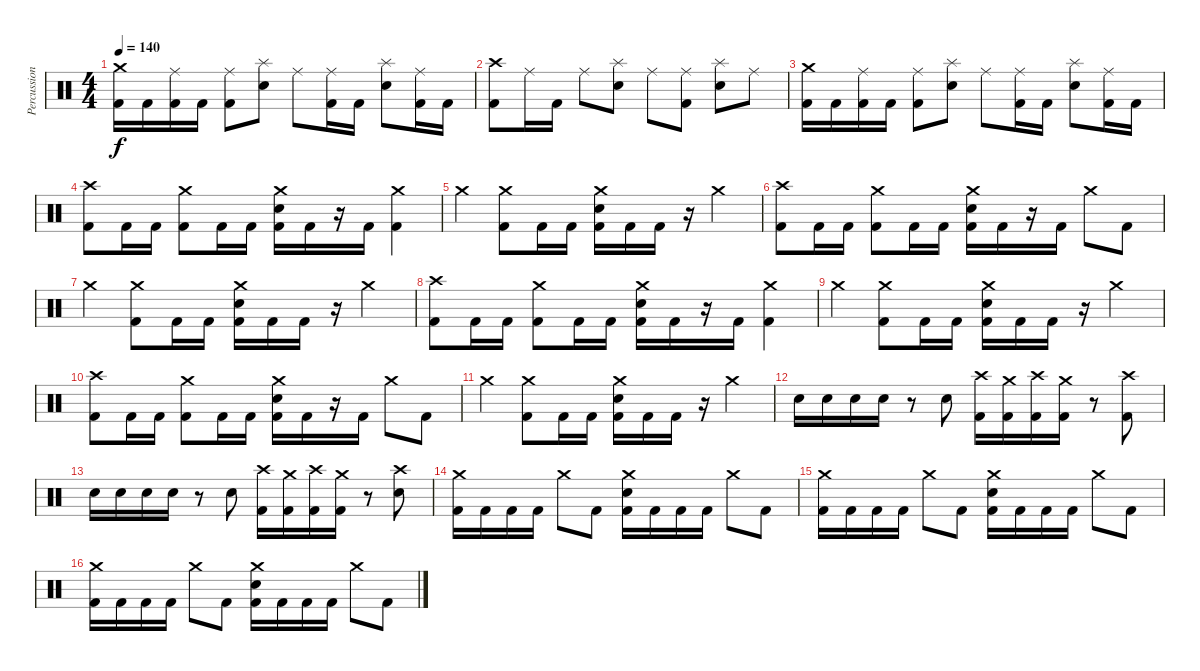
\track ("Percussion" "Percussion") {instrument percussion}
\staff {score}
\articulation defaults
\ts (4 4)
\tempo 140
\clef neutral
\ks c
("Crash medium (hit)" "Kick (hit) 2").16{dy f} "Kick (hit) 2".16 ("Ride (middle)" "Kick (hit) 2").16 "Kick (hit) 2".16 ("Ride (middle)" "Kick (hit) 2").8 ("Splash (hit)" "Electric Snare (hit)").8 "Ride (middle)".8 ("Ride (middle)" "Kick (hit) 2").16 "Kick (hit) 2".16 ("Splash (hit)" "Electric Snare (hit)").8 ("Ride (middle)" "Kick (hit) 2").16 "Kick (hit) 2".16 |
("Crash high (hit)" "Kick (hit) 2").8 "Ride (middle)".16 "Kick (hit) 2".16 "Ride (middle)".8 ("Splash (hit)" "Electric Snare (hit)").8 "Ride (middle)".8 ("Ride (middle)" "Kick (hit) 2").8 ("Splash (hit)" "Electric Snare (hit)").8 "Ride (middle)".8 |
("Crash medium (hit)" "Kick (hit) 2").16 "Kick (hit) 2".16 ("Ride (middle)" "Kick (hit) 2").16 "Kick (hit) 2".16 ("Ride (middle)" "Kick (hit) 2").8 ("Splash (hit)" "Electric Snare (hit)").8 "Ride (middle)".8 ("Ride (middle)" "Kick (hit) 2").16 "Kick (hit) 2".16 ("Splash (hit)" "Electric Snare (hit)").8 ("Ride (middle)" "Kick (hit) 2").16 "Kick (hit) 2".16 |
("Crash high (hit)" "Kick (hit) 2").8 "Kick (hit) 2".16 "Kick (hit) 2".16 ("Crash medium (hit)" "Kick (hit) 2").8 "Kick (hit) 2".16 "Kick (hit) 2".16 ("Crash medium (hit)" "Electric Snare (hit)" "Kick (hit) 2").16 "Kick (hit) 2".16 r.16 "Kick (hit) 2".16 ("Crash medium (hit)" "Kick (hit) 2").4 |
"Crash medium (hit)".4 ("Crash medium (hit)" "Kick (hit) 2").8 "Kick (hit) 2".16 "Kick (hit) 2".16 ("Crash medium (hit)" "Electric Snare (hit)" "Kick (hit) 2").16 "Kick (hit) 2".16 "Kick (hit) 2".16 r.16 "Crash medium (hit)".4 |
("Crash high (hit)" "Kick (hit) 2").8 "Kick (hit) 2".16 "Kick (hit) 2".16 ("Crash medium (hit)" "Kick (hit) 2").8 "Kick (hit) 2".16 "Kick (hit) 2".16 ("Crash medium (hit)" "Electric Snare (hit)" "Kick (hit) 2").16 "Kick (hit) 2".16 r.16 "Kick (hit) 2".16 "Crash medium (hit)".8 "Kick (hit) 2".8 |
"Crash medium (hit)".4 ("Crash medium (hit)" "Kick (hit) 2").8 "Kick (hit) 2".16 "Kick (hit) 2".16 ("Crash medium (hit)" "Electric Snare (hit)" "Kick (hit) 2").16 "Kick (hit) 2".16 "Kick (hit) 2".16 r.16 "Crash medium (hit)".4 |
("Crash high (hit)" "Kick (hit) 2").8 "Kick (hit) 2".16 "Kick (hit) 2".16 ("Crash medium (hit)" "Kick (hit) 2").8 "Kick (hit) 2".16 "Kick (hit) 2".16 ("Crash medium (hit)" "Electric Snare (hit)" "Kick (hit) 2").16 "Kick (hit) 2".16 r.16 "Kick (hit) 2".16 ("Crash medium (hit)" "Kick (hit) 2").4 |
"Crash medium (hit)".4 ("Crash medium (hit)" "Kick (hit) 2").8 "Kick (hit) 2".16 "Kick (hit) 2".16 ("Crash medium (hit)" "Electric Snare (hit)" "Kick (hit) 2").16 "Kick (hit) 2".16 "Kick (hit) 2".16 r.16 "Crash medium (hit)".4 |
("Crash high (hit)" "Kick (hit) 2").8 "Kick (hit) 2".16 "Kick (hit) 2".16 ("Crash medium (hit)" "Kick (hit) 2").8 "Kick (hit) 2".16 "Kick (hit) 2".16 ("Crash medium (hit)" "Electric Snare (hit)" "Kick (hit) 2").16 "Kick (hit) 2".16 r.16 "Kick (hit) 2".16 "Crash medium (hit)".8 "Kick (hit) 2".8 |
"Crash medium (hit)".4 ("Crash medium (hit)" "Kick (hit) 2").8 "Kick (hit) 2".16 "Kick (hit) 2".16 ("Crash medium (hit)" "Electric Snare (hit)" "Kick (hit) 2").16 "Kick (hit) 2".16 "Kick (hit) 2".16 r.16 "Crash medium (hit)".4 |
"Electric Snare (hit)".16 "Electric Snare (hit)".16 "Electric Snare (hit)".16 "Electric Snare (hit)".16 r.8 "Electric Snare (hit)".8 ("Crash high (hit)" "Kick (hit) 2").16 ("Crash medium (hit)" "Kick (hit) 2").16 ("Crash high (hit)" "Kick (hit) 2").16 ("Crash medium (hit)" "Kick (hit) 2").16 r.8 ("Crash high (hit)" "Kick (hit) 2").8 |
"Electric Snare (hit)".16 "Electric Snare (hit)".16 "Electric Snare (hit)".16 "Electric Snare (hit)".16 r.8 "Electric Snare (hit)".8 ("Crash high (hit)" "Kick (hit) 2").16 ("Crash medium (hit)" "Kick (hit) 2").16 ("Crash high (hit)" "Kick (hit) 2").16 ("Crash medium (hit)" "Kick (hit) 2").16 r.8 ("Crash high (hit)" "Electric Snare (hit)").8 |
("Crash medium (hit)" "Kick (hit) 2").16 "Kick (hit) 2".16 "Kick (hit) 2".16 "Kick (hit) 2".16 "Crash medium (hit)".8 "Kick (hit) 2".8 ("Crash medium (hit)" "Electric Snare (hit)" "Kick (hit) 2").16 "Kick (hit) 2".16 "Kick (hit) 2".16 "Kick (hit) 2".16 "Crash medium (hit)".8 "Kick (hit) 2".8 |
("Crash medium (hit)" "Kick (hit) 2").16 "Kick (hit) 2".16 "Kick (hit) 2".16 "Kick (hit) 2".16 "Crash medium (hit)".8 "Kick (hit) 2".8 ("Crash medium (hit)" "Electric Snare (hit)" "Kick (hit) 2").16 "Kick (hit) 2".16 "Kick (hit) 2".16 "Kick (hit) 2".16 "Crash medium (hit)".8 "Kick (hit) 2".8 |
("Crash medium (hit)" "Kick (hit) 2").16 "Kick (hit) 2".16 "Kick (hit) 2".16 "Kick (hit) 2".16 "Crash medium (hit)".8 "Kick (hit) 2".8 ("Crash medium (hit)" "Electric Snare (hit)" "Kick (hit) 2").16 "Kick (hit) 2".16 "Kick (hit) 2".16 "Kick (hit) 2".16 "Crash medium (hit)".8 "Kick (hit) 2".8
